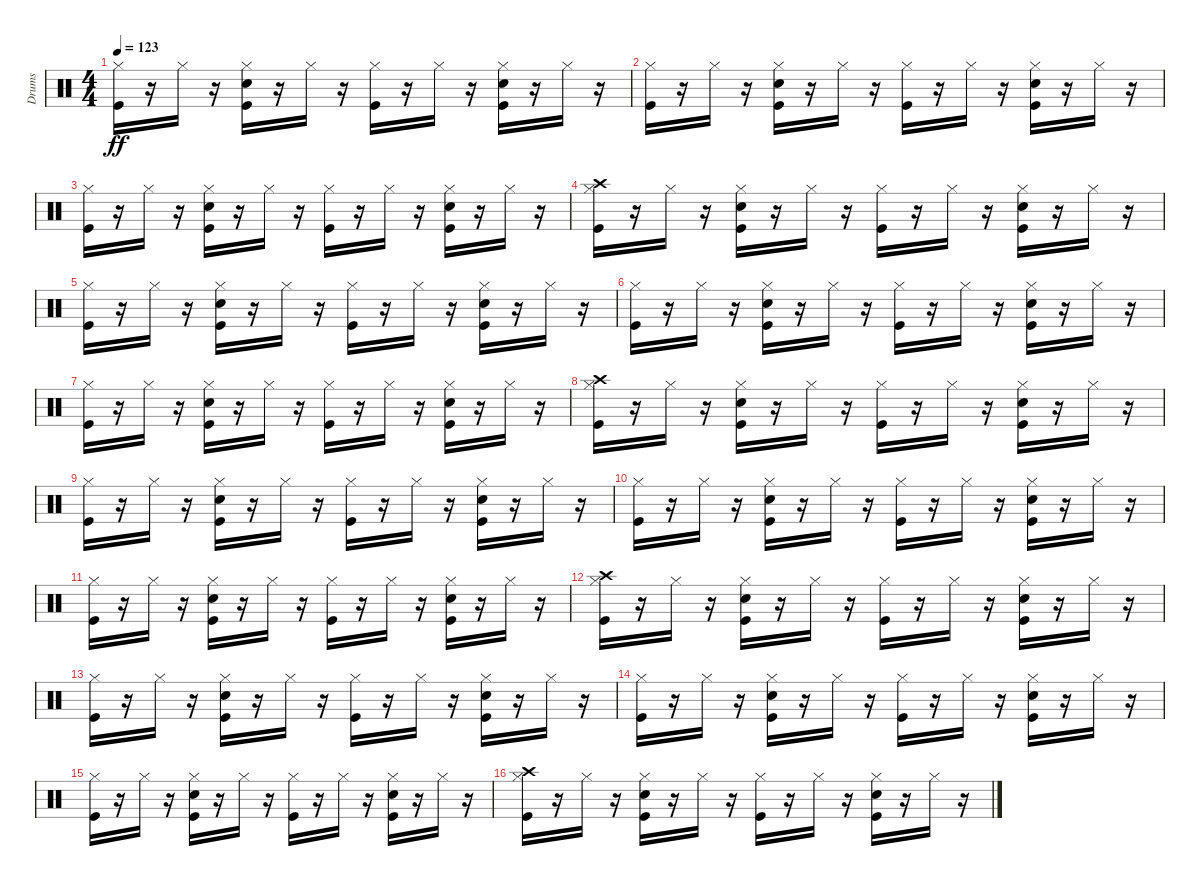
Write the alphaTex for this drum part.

\track ("Drums" "Drums") {instrument percussion}
\staff {score}
\articulation defaults
\ts (4 4)
\tempo 123
\clef neutral
\ks c
("Kick (hit)" "Hi-Hat (closed)").16{dy ff} r.16 "Hi-Hat (closed)".16 r.16 ("Kick (hit)" "Hi-Hat (closed)" "Snare (hit) 2").16 r.16 "Hi-Hat (closed)".16 r.16 ("Kick (hit)" "Hi-Hat (closed)").16 r.16 "Hi-Hat (closed)".16 r.16 ("Kick (hit)" "Snare (hit) 2" "Hi-Hat (closed)").16 r.16 "Hi-Hat (closed)".16 r.16 |
("Kick (hit)" "Hi-Hat (closed)").16 r.16 "Hi-Hat (closed)".16 r.16 ("Kick (hit)" "Hi-Hat (closed)" "Snare (hit) 2").16 r.16 "Hi-Hat (closed)".16 r.16 ("Kick (hit)" "Hi-Hat (closed)").16 r.16 "Hi-Hat (closed)".16 r.16 ("Kick (hit)" "Snare (hit) 2" "Hi-Hat (closed)").16 r.16 "Hi-Hat (closed)".16 r.16 |
("Kick (hit)" "Hi-Hat (closed)").16 r.16 "Hi-Hat (closed)".16 r.16 ("Kick (hit)" "Hi-Hat (closed)" "Snare (hit) 2").16 r.16 "Hi-Hat (closed)".16 r.16 ("Kick (hit)" "Hi-Hat (closed)").16 r.16 "Hi-Hat (closed)".16 r.16 ("Kick (hit)" "Snare (hit) 2" "Hi-Hat (closed)").16 r.16 "Hi-Hat (closed)".16 r.16 |
("Crash high (hit)" "Kick (hit)" "Hi-Hat (closed)").16 r.16 "Hi-Hat (closed)".16 r.16 ("Kick (hit)" "Hi-Hat (closed)" "Snare (hit) 2").16 r.16 "Hi-Hat (closed)".16 r.16 ("Kick (hit)" "Hi-Hat (closed)").16 r.16 "Hi-Hat (closed)".16 r.16 ("Kick (hit)" "Snare (hit) 2" "Hi-Hat (closed)").16 r.16 "Hi-Hat (closed)".16 r.16 |
("Kick (hit)" "Hi-Hat (closed)").16 r.16 "Hi-Hat (closed)".16 r.16 ("Kick (hit)" "Hi-Hat (closed)" "Snare (hit) 2").16 r.16 "Hi-Hat (closed)".16 r.16 ("Kick (hit)" "Hi-Hat (closed)").16 r.16 "Hi-Hat (closed)".16 r.16 ("Kick (hit)" "Snare (hit) 2" "Hi-Hat (closed)").16 r.16 "Hi-Hat (closed)".16 r.16 |
("Kick (hit)" "Hi-Hat (closed)").16 r.16 "Hi-Hat (closed)".16 r.16 ("Kick (hit)" "Hi-Hat (closed)" "Snare (hit) 2").16 r.16 "Hi-Hat (closed)".16 r.16 ("Kick (hit)" "Hi-Hat (closed)").16 r.16 "Hi-Hat (closed)".16 r.16 ("Kick (hit)" "Snare (hit) 2" "Hi-Hat (closed)").16 r.16 "Hi-Hat (closed)".16 r.16 |
("Kick (hit)" "Hi-Hat (closed)").16 r.16 "Hi-Hat (closed)".16 r.16 ("Kick (hit)" "Hi-Hat (closed)" "Snare (hit) 2").16 r.16 "Hi-Hat (closed)".16 r.16 ("Kick (hit)" "Hi-Hat (closed)").16 r.16 "Hi-Hat (closed)".16 r.16 ("Kick (hit)" "Snare (hit) 2" "Hi-Hat (closed)").16 r.16 "Hi-Hat (closed)".16 r.16 |
("Crash high (hit)" "Kick (hit)" "Hi-Hat (closed)").16 r.16 "Hi-Hat (closed)".16 r.16 ("Kick (hit)" "Hi-Hat (closed)" "Snare (hit) 2").16 r.16 "Hi-Hat (closed)".16 r.16 ("Kick (hit)" "Hi-Hat (closed)").16 r.16 "Hi-Hat (closed)".16 r.16 ("Kick (hit)" "Snare (hit) 2" "Hi-Hat (closed)").16 r.16 "Hi-Hat (closed)".16 r.16 |
("Kick (hit)" "Hi-Hat (closed)").16 r.16 "Hi-Hat (closed)".16 r.16 ("Kick (hit)" "Hi-Hat (closed)" "Snare (hit) 2").16 r.16 "Hi-Hat (closed)".16 r.16 ("Kick (hit)" "Hi-Hat (closed)").16 r.16 "Hi-Hat (closed)".16 r.16 ("Kick (hit)" "Snare (hit) 2" "Hi-Hat (closed)").16 r.16 "Hi-Hat (closed)".16 r.16 |
("Kick (hit)" "Hi-Hat (closed)").16 r.16 "Hi-Hat (closed)".16 r.16 ("Kick (hit)" "Hi-Hat (closed)" "Snare (hit) 2").16 r.16 "Hi-Hat (closed)".16 r.16 ("Kick (hit)" "Hi-Hat (closed)").16 r.16 "Hi-Hat (closed)".16 r.16 ("Kick (hit)" "Snare (hit) 2" "Hi-Hat (closed)").16 r.16 "Hi-Hat (closed)".16 r.16 |
("Kick (hit)" "Hi-Hat (closed)").16 r.16 "Hi-Hat (closed)".16 r.16 ("Kick (hit)" "Hi-Hat (closed)" "Snare (hit) 2").16 r.16 "Hi-Hat (closed)".16 r.16 ("Kick (hit)" "Hi-Hat (closed)").16 r.16 "Hi-Hat (closed)".16 r.16 ("Kick (hit)" "Snare (hit) 2" "Hi-Hat (closed)").16 r.16 "Hi-Hat (closed)".16 r.16 |
("Crash high (hit)" "Kick (hit)" "Hi-Hat (closed)").16 r.16 "Hi-Hat (closed)".16 r.16 ("Kick (hit)" "Hi-Hat (closed)" "Snare (hit) 2").16 r.16 "Hi-Hat (closed)".16 r.16 ("Kick (hit)" "Hi-Hat (closed)").16 r.16 "Hi-Hat (closed)".16 r.16 ("Kick (hit)" "Snare (hit) 2" "Hi-Hat (closed)").16 r.16 "Hi-Hat (closed)".16 r.16 |
("Kick (hit)" "Hi-Hat (closed)").16 r.16 "Hi-Hat (closed)".16 r.16 ("Kick (hit)" "Hi-Hat (closed)" "Snare (hit) 2").16 r.16 "Hi-Hat (closed)".16 r.16 ("Kick (hit)" "Hi-Hat (closed)").16 r.16 "Hi-Hat (closed)".16 r.16 ("Kick (hit)" "Snare (hit) 2" "Hi-Hat (closed)").16 r.16 "Hi-Hat (closed)".16 r.16 |
("Kick (hit)" "Hi-Hat (closed)").16 r.16 "Hi-Hat (closed)".16 r.16 ("Kick (hit)" "Hi-Hat (closed)" "Snare (hit) 2").16 r.16 "Hi-Hat (closed)".16 r.16 ("Kick (hit)" "Hi-Hat (closed)").16 r.16 "Hi-Hat (closed)".16 r.16 ("Kick (hit)" "Snare (hit) 2" "Hi-Hat (closed)").16 r.16 "Hi-Hat (closed)".16 r.16 |
("Kick (hit)" "Hi-Hat (closed)").16 r.16 "Hi-Hat (closed)".16 r.16 ("Kick (hit)" "Hi-Hat (closed)" "Snare (hit) 2").16 r.16 "Hi-Hat (closed)".16 r.16 ("Kick (hit)" "Hi-Hat (closed)").16 r.16 "Hi-Hat (closed)".16 r.16 ("Kick (hit)" "Snare (hit) 2" "Hi-Hat (closed)").16 r.16 "Hi-Hat (closed)".16 r.16 |
("Crash high (hit)" "Kick (hit)" "Hi-Hat (closed)").16 r.16 "Hi-Hat (closed)".16 r.16 ("Kick (hit)" "Hi-Hat (closed)" "Snare (hit) 2").16 r.16 "Hi-Hat (closed)".16 r.16 ("Kick (hit)" "Hi-Hat (closed)").16 r.16 "Hi-Hat (closed)".16 r.16 ("Kick (hit)" "Snare (hit) 2" "Hi-Hat (closed)").16 r.16 "Hi-Hat (closed)".16 r.16
